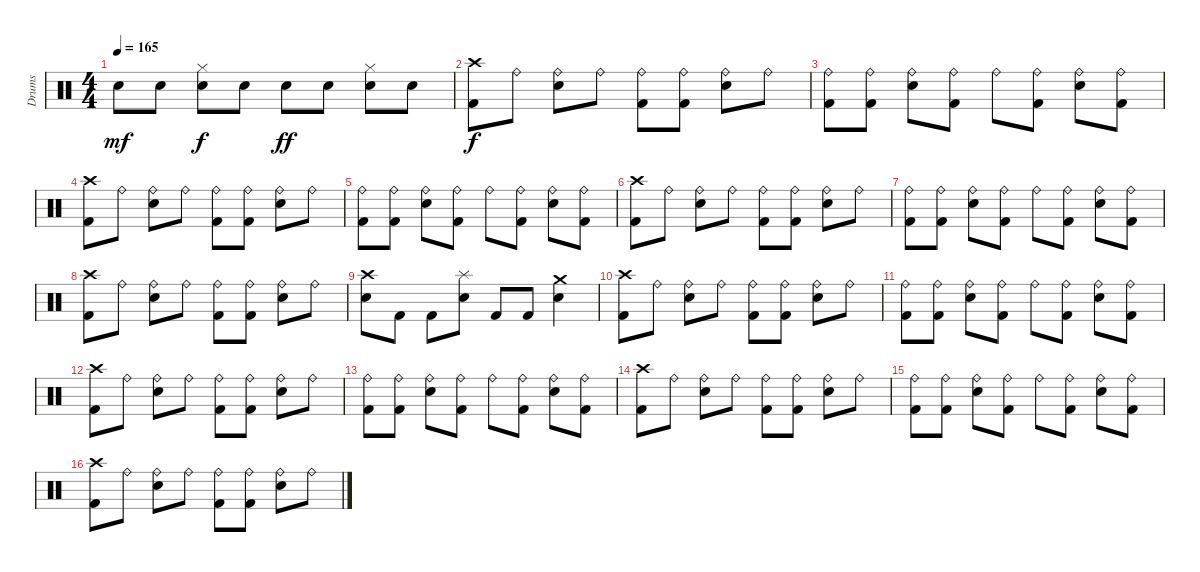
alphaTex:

\track ("Drums" "Drums") {instrument percussion}
\staff {score}
\articulation defaults
\ts (4 4)
\tempo 165
\clef neutral
\ks c "Snare (hit) 2".8{dy mf} "Snare (hit) 2".8
("Hi-Hat (closed)" "Snare (hit) 2").8{dy f} "Snare (hit) 2".8 "Snare (hit) 2".8{dy ff} "Snare (hit) 2".8 ("Hi-Hat (closed)" "Snare (hit) 2").8 "Snare (hit) 2".8 |
("Crash high (hit)" "Kick (hit) 2").8{dy f} "Ride (bell)".8 ("Ride (bell)" "Snare (hit) 2").8 "Ride (bell)".8 ("Ride (bell)" "Kick (hit) 2").8 ("Ride (bell)" "Kick (hit) 2").8 ("Ride (bell)" "Snare (hit) 2").8 "Ride (bell)".8 |
("Ride (bell)" "Kick (hit) 2").8 ("Ride (bell)" "Kick (hit) 2").8 ("Ride (bell)" "Snare (hit) 2").8 ("Ride (bell)" "Kick (hit) 2").8 "Ride (bell)".8 ("Ride (bell)" "Kick (hit) 2").8 ("Ride (bell)" "Snare (hit) 2").8 ("Ride (bell)" "Kick (hit) 2").8 |
("Crash high (hit)" "Kick (hit) 2").8 "Ride (bell)".8 ("Ride (bell)" "Snare (hit) 2").8 "Ride (bell)".8 ("Ride (bell)" "Kick (hit) 2").8 ("Ride (bell)" "Kick (hit) 2").8 ("Ride (bell)" "Snare (hit) 2").8 "Ride (bell)".8 |
("Ride (bell)" "Kick (hit) 2").8 ("Ride (bell)" "Kick (hit) 2").8 ("Ride (bell)" "Snare (hit) 2").8 ("Ride (bell)" "Kick (hit) 2").8 "Ride (bell)".8 ("Ride (bell)" "Kick (hit) 2").8 ("Ride (bell)" "Snare (hit) 2").8 ("Ride (bell)" "Kick (hit) 2").8 |
("Crash high (hit)" "Kick (hit) 2").8 "Ride (bell)".8 ("Ride (bell)" "Snare (hit) 2").8 "Ride (bell)".8 ("Ride (bell)" "Kick (hit) 2").8 ("Ride (bell)" "Kick (hit) 2").8 ("Ride (bell)" "Snare (hit) 2").8 "Ride (bell)".8 |
("Ride (bell)" "Kick (hit) 2").8 ("Ride (bell)" "Kick (hit) 2").8 ("Ride (bell)" "Snare (hit) 2").8 ("Ride (bell)" "Kick (hit) 2").8 "Ride (bell)".8 ("Ride (bell)" "Kick (hit) 2").8 ("Ride (bell)" "Snare (hit) 2").8 ("Ride (bell)" "Kick (hit) 2").8 |
("Crash high (hit)" "Kick (hit) 2").8 "Ride (bell)".8 ("Ride (bell)" "Snare (hit) 2").8 "Ride (bell)".8 ("Ride (bell)" "Kick (hit) 2").8 ("Ride (bell)" "Kick (hit) 2").8 ("Ride (bell)" "Snare (hit) 2").8 "Ride (bell)".8 |
("Crash high (hit)" "Snare (hit) 2").8 "Kick (hit) 2".8 "Kick (hit) 2".8 ("Splash (hit)" "Snare (hit) 2").8 "Kick (hit) 2".8 "Kick (hit) 2".8 ("Crash medium (hit)" "Snare (hit) 2").4 |
("Crash high (hit)" "Kick (hit) 2").8 "Ride (bell)".8 ("Ride (bell)" "Snare (hit) 2").8 "Ride (bell)".8 ("Ride (bell)" "Kick (hit) 2").8 ("Ride (bell)" "Kick (hit) 2").8 ("Ride (bell)" "Snare (hit) 2").8 "Ride (bell)".8 |
("Ride (bell)" "Kick (hit) 2").8 ("Ride (bell)" "Kick (hit) 2").8 ("Ride (bell)" "Snare (hit) 2").8 ("Ride (bell)" "Kick (hit) 2").8 "Ride (bell)".8 ("Ride (bell)" "Kick (hit) 2").8 ("Ride (bell)" "Snare (hit) 2").8 ("Ride (bell)" "Kick (hit) 2").8 |
("Crash high (hit)" "Kick (hit) 2").8 "Ride (bell)".8 ("Ride (bell)" "Snare (hit) 2").8 "Ride (bell)".8 ("Ride (bell)" "Kick (hit) 2").8 ("Ride (bell)" "Kick (hit) 2").8 ("Ride (bell)" "Snare (hit) 2").8 "Ride (bell)".8 |
("Ride (bell)" "Kick (hit) 2").8 ("Ride (bell)" "Kick (hit) 2").8 ("Ride (bell)" "Snare (hit) 2").8 ("Ride (bell)" "Kick (hit) 2").8 "Ride (bell)".8 ("Ride (bell)" "Kick (hit) 2").8 ("Ride (bell)" "Snare (hit) 2").8 ("Ride (bell)" "Kick (hit) 2").8 |
("Crash high (hit)" "Kick (hit) 2").8 "Ride (bell)".8 ("Ride (bell)" "Snare (hit) 2").8 "Ride (bell)".8 ("Ride (bell)" "Kick (hit) 2").8 ("Ride (bell)" "Kick (hit) 2").8 ("Ride (bell)" "Snare (hit) 2").8 "Ride (bell)".8 |
("Ride (bell)" "Kick (hit) 2").8 ("Ride (bell)" "Kick (hit) 2").8 ("Ride (bell)" "Snare (hit) 2").8 ("Ride (bell)" "Kick (hit) 2").8 "Ride (bell)".8 ("Ride (bell)" "Kick (hit) 2").8 ("Ride (bell)" "Snare (hit) 2").8 ("Ride (bell)" "Kick (hit) 2").8 |
("Crash high (hit)" "Kick (hit) 2").8 "Ride (bell)".8 ("Ride (bell)" "Snare (hit) 2").8 "Ride (bell)".8 ("Ride (bell)" "Kick (hit) 2").8 ("Ride (bell)" "Kick (hit) 2").8 ("Ride (bell)" "Snare (hit) 2").8 "Ride (bell)".8
